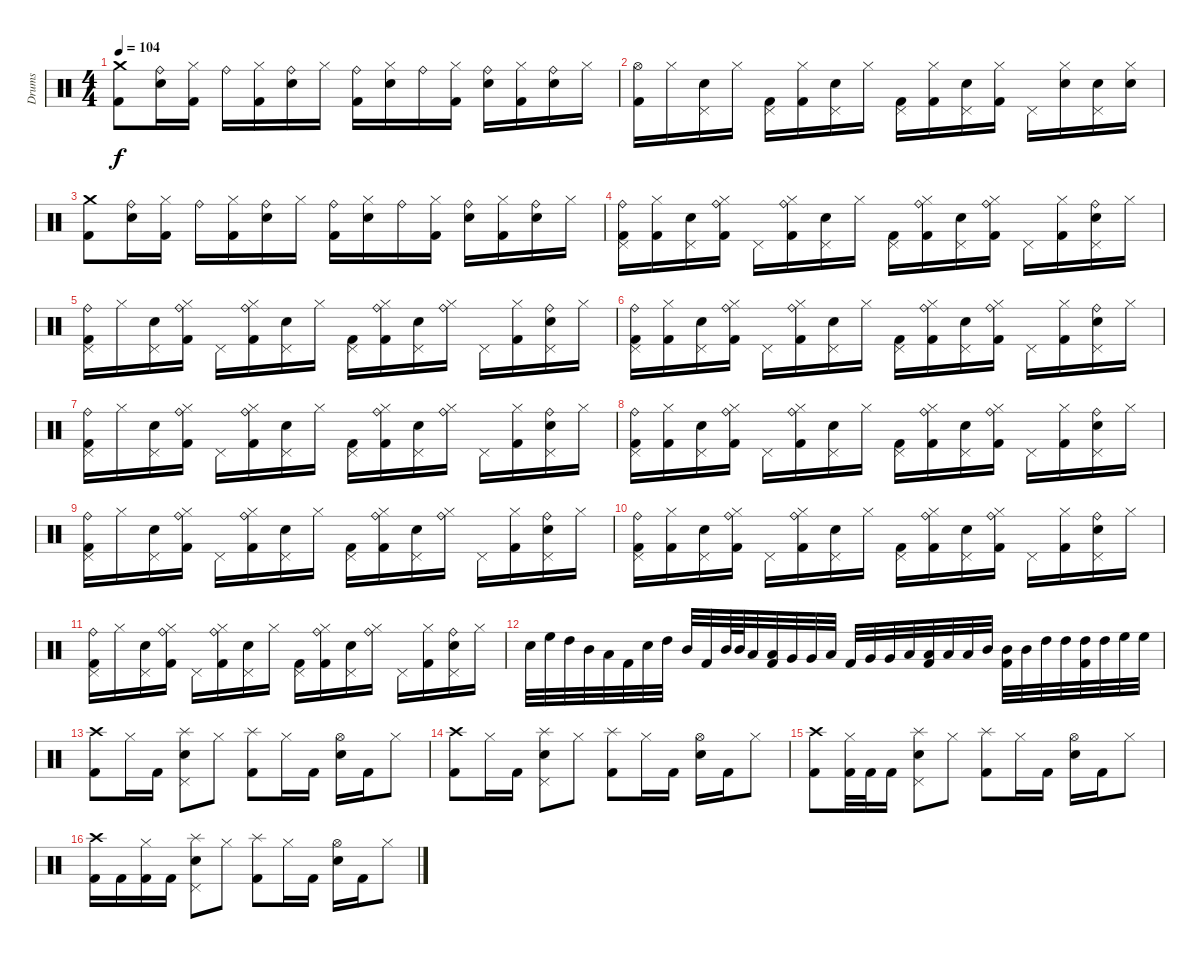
\track ("Drums" "Drums") {instrument percussion}
\staff {score}
\articulation defaults
\ts (4 4)
\tempo 104
\clef neutral
\ks c
("Kick (hit) 2" "Crash medium (hit)").8{dy f} ("Snare (hit) 2" "Ride (bell)").16 ("Kick (hit) 2" "Hi-Hat (closed)").16 "Ride (bell)".16 ("Kick (hit) 2" "Hi-Hat (closed)").16 ("Snare (hit) 2" "Ride (bell)").16 "Hi-Hat (closed)".16 ("Kick (hit) 2" "Ride (bell)").16 ("Snare (hit) 2" "Hi-Hat (closed)").16 "Ride (bell)".16 ("Kick (hit) 2" "Hi-Hat (closed)").16 ("Snare (hit) 2" "Ride (bell)").16 ("Kick (hit) 2" "Hi-Hat (closed)").16 ("Snare (hit) 2" "Ride (bell)").16 "Hi-Hat (closed)".16 |
("Kick (hit) 2" "Hi-Hat (open)").16 "Hi-Hat (closed)".16 ("Snare (hit) 2" "Pedal Hi-Hat (hit)").16 "Hi-Hat (closed)".16 ("Kick (hit) 2" "Pedal Hi-Hat (hit)").16 ("Kick (hit) 2" "Hi-Hat (closed)").16 ("Snare (hit) 2" "Pedal Hi-Hat (hit)").16 "Hi-Hat (closed)".16 ("Kick (hit) 2" "Pedal Hi-Hat (hit)").16 ("Kick (hit) 2" "Hi-Hat (closed)").16 ("Snare (hit) 2" "Pedal Hi-Hat (hit)").16 ("Kick (hit) 2" "Hi-Hat (closed)").16 "Pedal Hi-Hat (hit)".16 ("Snare (hit) 2" "Hi-Hat (closed)").16 ("Snare (hit) 2" "Pedal Hi-Hat (hit)").16 ("Snare (hit) 2" "Hi-Hat (closed)").16 |
("Kick (hit) 2" "Crash medium (hit)").8 ("Snare (hit) 2" "Ride (bell)").16 ("Kick (hit) 2" "Hi-Hat (closed)").16 "Ride (bell)".16 ("Kick (hit) 2" "Hi-Hat (closed)").16 ("Snare (hit) 2" "Ride (bell)").16 "Hi-Hat (closed)".16 ("Kick (hit) 2" "Ride (bell)").16 ("Snare (hit) 2" "Hi-Hat (closed)").16 "Ride (bell)".16 ("Kick (hit) 2" "Hi-Hat (closed)").16 ("Snare (hit) 2" "Ride (bell)").16 ("Kick (hit) 2" "Hi-Hat (closed)").16 ("Snare (hit) 2" "Ride (bell)").16 "Hi-Hat (closed)".16 |
("Kick (hit) 2" "Pedal Hi-Hat (hit)" "Ride (bell)").16 ("Kick (hit) 2" "Hi-Hat (closed)").16 ("Snare (hit) 2" "Pedal Hi-Hat (hit)").16 ("Kick (hit) 2" "Hi-Hat (closed)" "Ride (bell)").16 "Pedal Hi-Hat (hit)".16 ("Kick (hit) 2" "Hi-Hat (closed)" "Ride (bell)").16 ("Snare (hit) 2" "Pedal Hi-Hat (hit)").16 "Hi-Hat (closed)".16 ("Kick (hit) 2" "Pedal Hi-Hat (hit)").16 ("Kick (hit) 2" "Hi-Hat (closed)" "Ride (bell)").16 ("Snare (hit) 2" "Pedal Hi-Hat (hit)").16 ("Kick (hit) 2" "Hi-Hat (closed)" "Ride (bell)").16 "Pedal Hi-Hat (hit)".16 ("Kick (hit) 2" "Hi-Hat (closed)").16 ("Snare (hit) 2" "Pedal Hi-Hat (hit)" "Ride (bell)").16 "Hi-Hat (closed)".16 |
("Kick (hit) 2" "Pedal Hi-Hat (hit)" "Ride (bell)").16 "Hi-Hat (closed)".16 ("Snare (hit) 2" "Pedal Hi-Hat (hit)").16 ("Kick (hit) 2" "Hi-Hat (closed)" "Ride (bell)").16 "Pedal Hi-Hat (hit)".16 ("Kick (hit) 2" "Hi-Hat (closed)" "Ride (bell)").16 ("Snare (hit) 2" "Pedal Hi-Hat (hit)").16 "Hi-Hat (closed)".16 ("Kick (hit) 2" "Pedal Hi-Hat (hit)").16 ("Kick (hit) 2" "Hi-Hat (closed)" "Ride (bell)").16 ("Snare (hit) 2" "Pedal Hi-Hat (hit)").16 ("Hi-Hat (closed)" "Ride (bell)").16 "Pedal Hi-Hat (hit)".16 ("Kick (hit) 2" "Hi-Hat (closed)").16 ("Snare (hit) 2" "Pedal Hi-Hat (hit)" "Ride (bell)").16 "Hi-Hat (closed)".16 |
("Kick (hit) 2" "Pedal Hi-Hat (hit)" "Ride (bell)").16 ("Kick (hit) 2" "Hi-Hat (closed)").16 ("Snare (hit) 2" "Pedal Hi-Hat (hit)").16 ("Kick (hit) 2" "Hi-Hat (closed)" "Ride (bell)").16 "Pedal Hi-Hat (hit)".16 ("Kick (hit) 2" "Hi-Hat (closed)" "Ride (bell)").16 ("Snare (hit) 2" "Pedal Hi-Hat (hit)").16 "Hi-Hat (closed)".16 ("Kick (hit) 2" "Pedal Hi-Hat (hit)").16 ("Kick (hit) 2" "Hi-Hat (closed)" "Ride (bell)").16 ("Snare (hit) 2" "Pedal Hi-Hat (hit)").16 ("Kick (hit) 2" "Hi-Hat (closed)" "Ride (bell)").16 "Pedal Hi-Hat (hit)".16 ("Kick (hit) 2" "Hi-Hat (closed)").16 ("Snare (hit) 2" "Pedal Hi-Hat (hit)" "Ride (bell)").16 "Hi-Hat (closed)".16 |
("Kick (hit) 2" "Pedal Hi-Hat (hit)" "Ride (bell)").16 "Hi-Hat (closed)".16 ("Snare (hit) 2" "Pedal Hi-Hat (hit)").16 ("Kick (hit) 2" "Hi-Hat (closed)" "Ride (bell)").16 "Pedal Hi-Hat (hit)".16 ("Kick (hit) 2" "Hi-Hat (closed)" "Ride (bell)").16 ("Snare (hit) 2" "Pedal Hi-Hat (hit)").16 "Hi-Hat (closed)".16 ("Kick (hit) 2" "Pedal Hi-Hat (hit)").16 ("Kick (hit) 2" "Hi-Hat (closed)" "Ride (bell)").16 ("Snare (hit) 2" "Pedal Hi-Hat (hit)").16 ("Hi-Hat (closed)" "Ride (bell)").16 "Pedal Hi-Hat (hit)".16 ("Kick (hit) 2" "Hi-Hat (closed)").16 ("Snare (hit) 2" "Pedal Hi-Hat (hit)" "Ride (bell)").16 "Hi-Hat (closed)".16 |
("Kick (hit) 2" "Pedal Hi-Hat (hit)" "Ride (bell)").16 ("Kick (hit) 2" "Hi-Hat (closed)").16 ("Snare (hit) 2" "Pedal Hi-Hat (hit)").16 ("Kick (hit) 2" "Hi-Hat (closed)" "Ride (bell)").16 "Pedal Hi-Hat (hit)".16 ("Kick (hit) 2" "Hi-Hat (closed)" "Ride (bell)").16 ("Snare (hit) 2" "Pedal Hi-Hat (hit)").16 "Hi-Hat (closed)".16 ("Kick (hit) 2" "Pedal Hi-Hat (hit)").16 ("Kick (hit) 2" "Hi-Hat (closed)" "Ride (bell)").16 ("Snare (hit) 2" "Pedal Hi-Hat (hit)").16 ("Kick (hit) 2" "Hi-Hat (closed)" "Ride (bell)").16 "Pedal Hi-Hat (hit)".16 ("Kick (hit) 2" "Hi-Hat (closed)").16 ("Snare (hit) 2" "Pedal Hi-Hat (hit)" "Ride (bell)").16 "Hi-Hat (closed)".16 |
("Kick (hit) 2" "Pedal Hi-Hat (hit)" "Ride (bell)").16 "Hi-Hat (closed)".16 ("Snare (hit) 2" "Pedal Hi-Hat (hit)").16 ("Kick (hit) 2" "Hi-Hat (closed)" "Ride (bell)").16 "Pedal Hi-Hat (hit)".16 ("Kick (hit) 2" "Hi-Hat (closed)" "Ride (bell)").16 ("Snare (hit) 2" "Pedal Hi-Hat (hit)").16 "Hi-Hat (closed)".16 ("Kick (hit) 2" "Pedal Hi-Hat (hit)").16 ("Kick (hit) 2" "Hi-Hat (closed)" "Ride (bell)").16 ("Snare (hit) 2" "Pedal Hi-Hat (hit)").16 ("Hi-Hat (closed)" "Ride (bell)").16 "Pedal Hi-Hat (hit)".16 ("Kick (hit) 2" "Hi-Hat (closed)").16 ("Snare (hit) 2" "Pedal Hi-Hat (hit)" "Ride (bell)").16 "Hi-Hat (closed)".16 |
("Kick (hit) 2" "Pedal Hi-Hat (hit)" "Ride (bell)").16 ("Kick (hit) 2" "Hi-Hat (closed)").16 ("Snare (hit) 2" "Pedal Hi-Hat (hit)").16 ("Kick (hit) 2" "Hi-Hat (closed)" "Ride (bell)").16 "Pedal Hi-Hat (hit)".16 ("Kick (hit) 2" "Hi-Hat (closed)" "Ride (bell)").16 ("Snare (hit) 2" "Pedal Hi-Hat (hit)").16 "Hi-Hat (closed)".16 ("Kick (hit) 2" "Pedal Hi-Hat (hit)").16 ("Kick (hit) 2" "Hi-Hat (closed)" "Ride (bell)").16 ("Snare (hit) 2" "Pedal Hi-Hat (hit)").16 ("Kick (hit) 2" "Hi-Hat (closed)" "Ride (bell)").16 "Pedal Hi-Hat (hit)".16 ("Kick (hit) 2" "Hi-Hat (closed)").16 ("Snare (hit) 2" "Pedal Hi-Hat (hit)" "Ride (bell)").16 "Hi-Hat (closed)".16 |
("Kick (hit) 2" "Pedal Hi-Hat (hit)" "Ride (bell)").16 "Hi-Hat (closed)".16 ("Snare (hit) 2" "Pedal Hi-Hat (hit)").16 ("Kick (hit) 2" "Hi-Hat (closed)" "Ride (bell)").16 "Pedal Hi-Hat (hit)".16 ("Kick (hit) 2" "Hi-Hat (closed)" "Ride (bell)").16 ("Snare (hit) 2" "Pedal Hi-Hat (hit)").16 "Hi-Hat (closed)".16 ("Kick (hit) 2" "Pedal Hi-Hat (hit)").16 ("Kick (hit) 2" "Hi-Hat (closed)" "Ride (bell)").16 ("Snare (hit) 2" "Pedal Hi-Hat (hit)").16 ("Hi-Hat (closed)" "Ride (bell)").16 "Pedal Hi-Hat (hit)".16 ("Kick (hit) 2" "Hi-Hat (closed)").16 ("Snare (hit) 2" "Pedal Hi-Hat (hit)" "Ride (bell)").16 "Hi-Hat (closed)".16 |
"Snare (hit) 2".32 "High Floor Tom (hit)".32 "High Tom (hit)".32 "Mid Tom (hit)".32 "Low Tom (hit)".32 "Kick (hit) 2".32 "Snare (hit) 2".32 "High Tom (hit)".32 "Mid Tom (hit)".32 "Kick (hit) 2".32 "Mid Tom (hit)".64 "Mid Tom (hit)".64 "Low Tom (hit)".32 ("Kick (hit) 2" "Low Tom (hit)").32 "Very Low Tom (hit)".32 "Very Low Tom (hit)".32 "Low Floor Tom (hit)".32 "Kick (hit) 2".32 "Very Low Tom (hit)".32 "Very Low Tom (hit)".32 "Low Tom (hit)".32 ("Kick (hit) 2" "Low Tom (hit)").32 "Low Tom (hit)".32 "Low Tom (hit)".32 "Mid Tom (hit)".32 ("Kick (hit) 2" "Mid Tom (hit)").32 "Mid Tom (hit)".32 "High Tom (hit)".32 "High Tom (hit)".32 ("Kick (hit) 2" "High Tom (hit)").32 "High Tom (hit)".32 "High Floor Tom (hit)".32 "High Floor Tom (hit)".32 |
("Kick (hit) 2" "Crash high (hit)").8 "Hi-Hat (closed)".16 "Kick (hit) 2".16 ("Snare (hit) 2" "Pedal Hi-Hat (hit)" "Splash (hit)").8 "Hi-Hat (closed)".8 ("Kick (hit) 2" "Splash (hit)").8 "Hi-Hat (closed)".16 "Kick (hit) 2".16 ("Snare (hit) 2" "Hi-Hat (open)").16 "Kick (hit) 2".16 "Hi-Hat (closed)".8 |
("Kick (hit) 2" "Crash high (hit)").8 "Hi-Hat (closed)".16 "Kick (hit) 2".16 ("Snare (hit) 2" "Pedal Hi-Hat (hit)" "Splash (hit)").8 "Hi-Hat (closed)".8 ("Kick (hit) 2" "Splash (hit)").8 "Hi-Hat (closed)".16 "Kick (hit) 2".16 ("Snare (hit) 2" "Hi-Hat (open)").16 "Kick (hit) 2".16 "Hi-Hat (closed)".8 |
("Kick (hit) 2" "Crash high (hit)").8 ("Kick (hit) 2" "Hi-Hat (closed)").32 "Kick (hit) 2".32 "Kick (hit) 2".16 ("Snare (hit) 2" "Pedal Hi-Hat (hit)" "Splash (hit)").8 "Hi-Hat (closed)".8 ("Kick (hit) 2" "Splash (hit)").8 "Hi-Hat (closed)".16 "Kick (hit) 2".16 ("Snare (hit) 2" "Hi-Hat (open)").16 "Kick (hit) 2".16 "Hi-Hat (closed)".8 |
("Kick (hit) 2" "Crash high (hit)").16 "Kick (hit) 2".16 ("Kick (hit) 2" "Hi-Hat (closed)").16 "Kick (hit) 2".16 ("Snare (hit) 2" "Pedal Hi-Hat (hit)" "Splash (hit)").8 "Hi-Hat (closed)".8 ("Kick (hit) 2" "Splash (hit)").8 "Hi-Hat (closed)".16 "Kick (hit) 2".16 ("Snare (hit) 2" "Hi-Hat (open)").16 "Kick (hit) 2".16 "Hi-Hat (closed)".8
